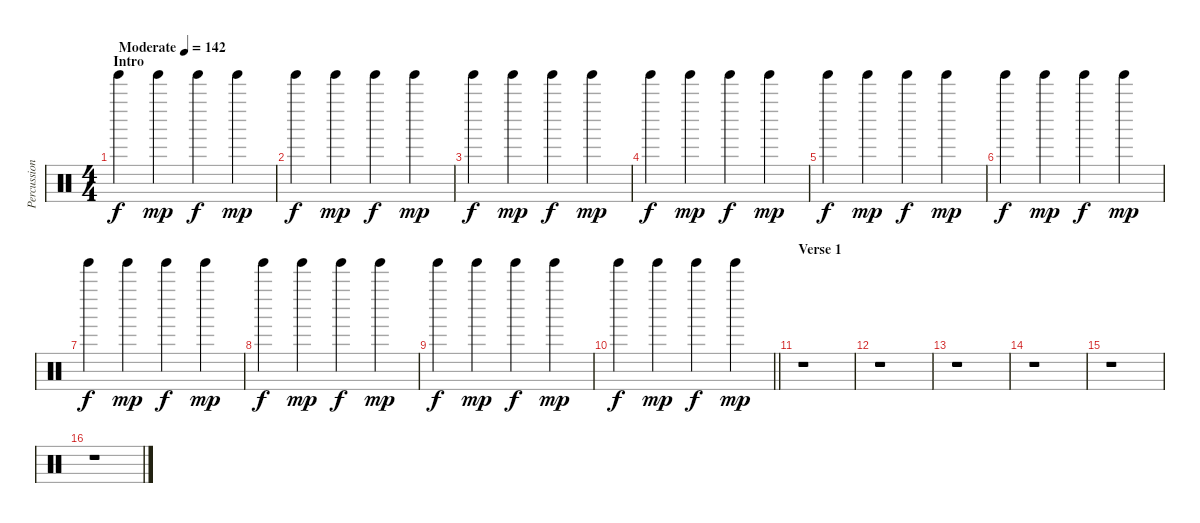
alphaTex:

\track ("Percussion" "Percussion") {instrument percussion}
\staff {score}
\articulation defaults
\ts (4 4)
\section ("" "Intro")
\tempo (142 "Moderate")
\clef neutral
\ks c "Tinkle Bell (hit)".4{dy f} "Tinkle Bell (hit)".4{dy mp} "Tinkle Bell (hit)".4{dy f} "Tinkle Bell (hit)".4{dy mp}
|
"Tinkle Bell (hit)".4{dy f} "Tinkle Bell (hit)".4{dy mp} "Tinkle Bell (hit)".4{dy f} "Tinkle Bell (hit)".4{dy mp} |
"Tinkle Bell (hit)".4{dy f} "Tinkle Bell (hit)".4{dy mp} "Tinkle Bell (hit)".4{dy f} "Tinkle Bell (hit)".4{dy mp} |
"Tinkle Bell (hit)".4{dy f} "Tinkle Bell (hit)".4{dy mp} "Tinkle Bell (hit)".4{dy f} "Tinkle Bell (hit)".4{dy mp} |
"Tinkle Bell (hit)".4{dy f} "Tinkle Bell (hit)".4{dy mp} "Tinkle Bell (hit)".4{dy f} "Tinkle Bell (hit)".4{dy mp} |
"Tinkle Bell (hit)".4{dy f} "Tinkle Bell (hit)".4{dy mp} "Tinkle Bell (hit)".4{dy f} "Tinkle Bell (hit)".4{dy mp} |
"Tinkle Bell (hit)".4{dy f} "Tinkle Bell (hit)".4{dy mp} "Tinkle Bell (hit)".4{dy f} "Tinkle Bell (hit)".4{dy mp} |
"Tinkle Bell (hit)".4{dy f} "Tinkle Bell (hit)".4{dy mp} "Tinkle Bell (hit)".4{dy f} "Tinkle Bell (hit)".4{dy mp} |
"Tinkle Bell (hit)".4{dy f} "Tinkle Bell (hit)".4{dy mp} "Tinkle Bell (hit)".4{dy f} "Tinkle Bell (hit)".4{dy mp} |
\barLineRight lightlight "Tinkle Bell (hit)".4{dy f} "Tinkle Bell (hit)".4{dy mp} "Tinkle Bell (hit)".4{dy f} "Tinkle Bell (hit)".4{dy mp}
|
\section ("" "Verse 1")
r.1 |
r.1 |
r.1 |
r.1 |
r.1 |
r.1
